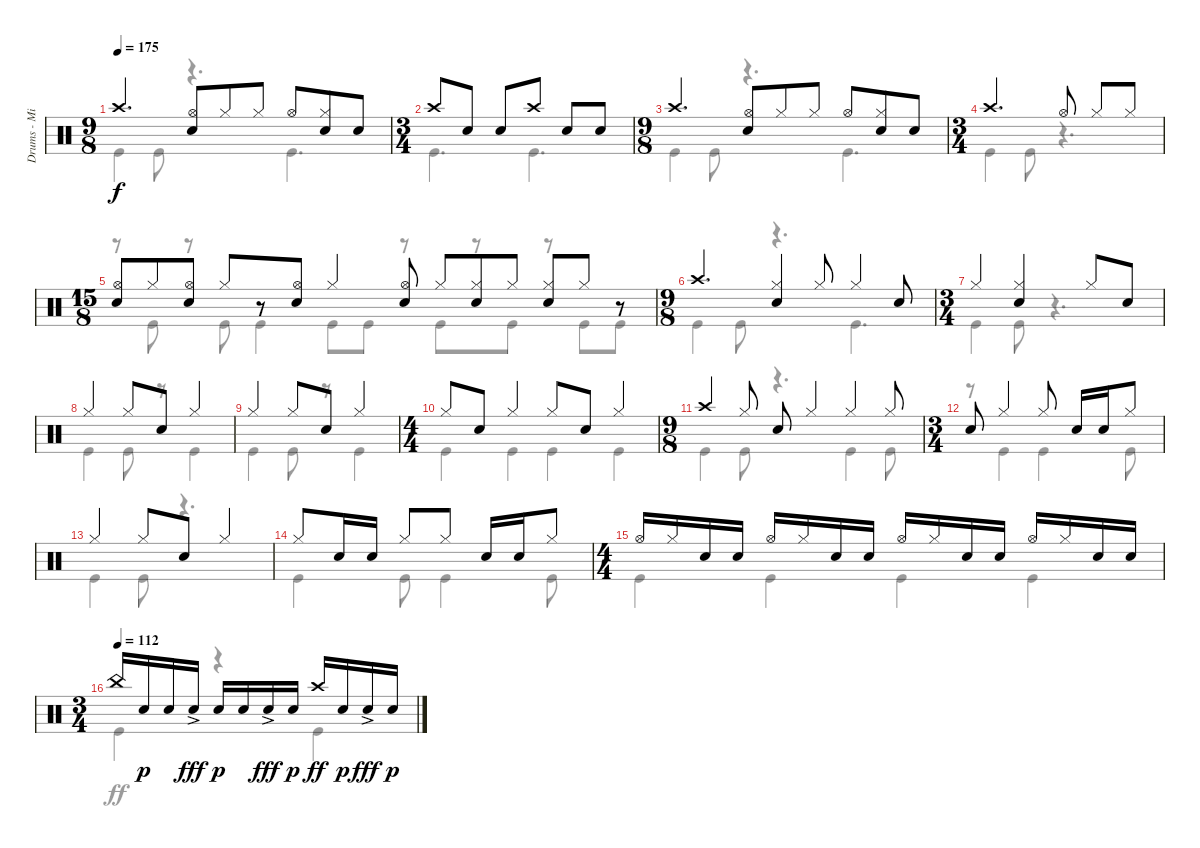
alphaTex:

\track ("Drums - Mike Portnoy" "Drums - Mi") {instrument percussion}
\staff {score}
\articulation defaults
\voice
\ts (9 8)
\tempo 175
\clef neutral
\ks c "Crash high (hit)".4{d dy f}
("Hi-Hat (open)" "Snare (hit) 2").8 "Hi-Hat (closed)".8 "Hi-Hat (closed)".8 "Hi-Hat (open)".8 ("Hi-Hat (closed)" "Snare (hit) 2").8 "Snare (hit) 2".8 |
\ts (3 4)
"Crash high (hit)".8 "Snare (hit) 2".8 "Snare (hit) 2".8 "Crash high (hit)".8 "Snare (hit) 2".8 "Snare (hit) 2".8 |
\ts (9 8)
"Crash high (hit)".4{d} ("Hi-Hat (open)" "Snare (hit) 2").8 "Hi-Hat (closed)".8 "Hi-Hat (closed)".8 "Hi-Hat (open)".8 ("Hi-Hat (closed)" "Snare (hit) 2").8 "Snare (hit) 2".8 |
\ts (3 4)
"Crash high (hit)".4{d} "Hi-Hat (open)".8 "Hi-Hat (closed)".8 "Hi-Hat (closed)".8 |
\ts (15 8)
("Hi-Hat (open)" "Snare (hit) 2").8 "Hi-Hat (closed)".8 ("Hi-Hat (open)" "Snare (hit) 2").8 "Hi-Hat (closed)".8 r.8 ("Hi-Hat (open)" "Snare (hit) 2").8 "Hi-Hat (closed)".4 ("Hi-Hat (open)" "Snare (hit) 2").8 "Hi-Hat (closed)".8 ("Hi-Hat (closed)" "Snare (hit) 2").8 "Hi-Hat (closed)".8 ("Hi-Hat (closed)" "Snare (hit) 2").8 "Hi-Hat (closed)".8 r.8 |
\ts (9 8)
"Crash high (hit)".4{d} ("Hi-Hat (closed)" "Snare (hit) 2").4 "Hi-Hat (closed)".8 "Hi-Hat (closed)".4 "Snare (hit) 2".8 |
\ts (3 4)
"Hi-Hat (closed)".4 ("Hi-Hat (closed)" "Snare (hit) 2").4 "Hi-Hat (closed)".8 "Snare (hit) 2".8 |
"Hi-Hat (closed)".4 "Hi-Hat (closed)".8 "Snare (hit) 2".8 "Hi-Hat (closed)".4 |
"Hi-Hat (closed)".4 "Hi-Hat (closed)".8 "Snare (hit) 2".8 "Hi-Hat (closed)".4 |
\ts (4 4)
"Hi-Hat (closed)".8 "Snare (hit) 2".8 "Hi-Hat (closed)".4 "Hi-Hat (closed)".8 "Snare (hit) 2".8 "Hi-Hat (closed)".4 |
\ts (9 8)
"Crash high (hit)".4 "Hi-Hat (closed)".8 "Snare (hit) 2".8 "Hi-Hat (closed)".4 "Hi-Hat (closed)".4 "Hi-Hat (closed)".8 |
\ts (3 4)
"Snare (hit) 2".8 "Hi-Hat (closed)".4 "Hi-Hat (closed)".8 "Snare (hit) 2".16 "Snare (hit) 2".16 "Hi-Hat (closed)".8 |
"Hi-Hat (closed)".4 "Hi-Hat (closed)".8 "Snare (hit) 2".8 "Hi-Hat (closed)".4 |
"Hi-Hat (closed)".8 "Snare (hit) 2".16 "Snare (hit) 2".16 "Hi-Hat (closed)".8 "Hi-Hat (closed)".8 "Snare (hit) 2".16 "Snare (hit) 2".16 "Hi-Hat (closed)".8 |
\ts (4 4)
"Hi-Hat (open)".16 "Hi-Hat (closed)".16 "Snare (hit) 2".16 "Snare (hit) 2".16 "Hi-Hat (open)".16 "Hi-Hat (closed)".16 "Snare (hit) 2".16 "Snare (hit) 2".16 "Hi-Hat (open)".16 "Hi-Hat (closed)".16 "Snare (hit) 2".16 "Snare (hit) 2".16 "Hi-Hat (open)".16 "Hi-Hat (closed)".16 "Snare (hit) 2".16 "Snare (hit) 2".16 |
\ts (3 4)
\tempo (112)
"China (hit)".16 "Snare (hit) 2".16{dy p} "Snare (hit) 2".16 "Snare (hit) 2"{ac}.16{dy fff} "Snare (hit) 2".16{dy p} "Snare (hit) 2".16 "Snare (hit) 2"{ac}.16{dy fff} "Snare (hit) 2".16{dy p} "Crash high (hit)".16{dy ff} "Snare (hit) 2".16{dy p} "Snare (hit) 2"{ac}.16{dy fff} "Snare (hit) 2".16{dy p}
\voice
\clef neutral
\ottava regular
\simile none
\ks c "Kick (hit)".4{dy f} "Kick (hit)".8
r.4{d} "Kick (hit)".4{d} |
"Kick (hit)".4{d} "Kick (hit)".4{d} |
"Kick (hit)".4 "Kick (hit)".8 r.4{d} "Kick (hit)".4{d} |
"Kick (hit)".4 "Kick (hit)".8 r.4{d} |
r.8 "Kick (hit)".8 r.8 "Kick (hit)".8 "Kick (hit)".4 "Kick (hit)".8 "Kick (hit)".8 r.8 "Kick (hit)".8 r.8 "Kick (hit)".8 r.8 "Kick (hit)".8 "Kick (hit)".8 |
"Kick (hit)".4 "Kick (hit)".8 r.4{d} "Kick (hit)".4{d} |
"Kick (hit)".4 "Kick (hit)".8 r.4{d} |
"Kick (hit)".4 "Kick (hit)".8 r.8 "Kick (hit)".4 |
"Kick (hit)".4 "Kick (hit)".8 r.8 "Kick (hit)".4 |
"Kick (hit)".4 "Kick (hit)".4 "Kick (hit)".4 "Kick (hit)".4 |
"Kick (hit)".4 "Kick (hit)".8 r.4{d} "Kick (hit)".4 "Kick (hit)".8 |
r.8 "Kick (hit)".4 "Kick (hit)".4 "Kick (hit)".8 |
"Kick (hit)".4 "Kick (hit)".8 r.4{d} |
"Kick (hit)".4 "Kick (hit)".8 "Kick (hit)".4 "Kick (hit)".8 |
"Kick (hit)".4 "Kick (hit)".4 "Kick (hit)".4 "Kick (hit)".4 |
"Kick (hit)".4{dy ff} r.4 "Kick (hit)".4
